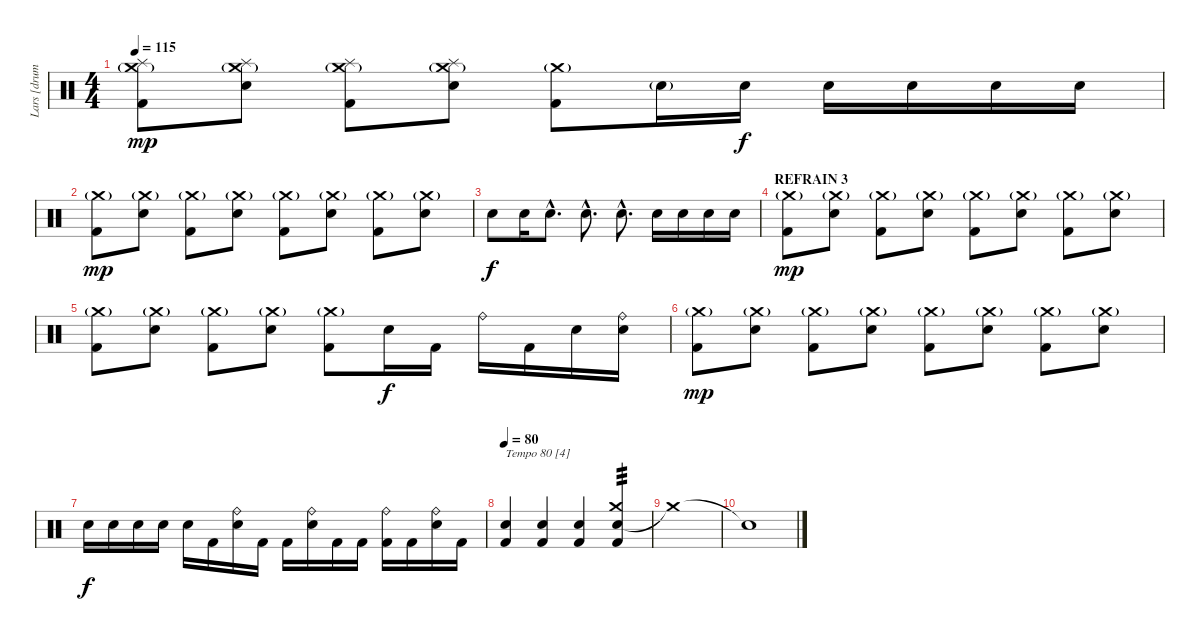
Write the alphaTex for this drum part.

\track ("Lars [drums]" "Lars [drum") {instrument percussion}
\staff {score}
\articulation defaults
\ts (4 4)
\tempo 115
\clef neutral
\ks c
("Kick (hit) 2" "Splash (hit)" "Crash medium (hit)"{g}).8{dy mp} ("Snare (hit) 2" "Splash (hit)" "Crash medium (hit)"{g}).8 ("Kick (hit) 2" "Splash (hit)" "Crash medium (hit)"{g}).8 ("Snare (hit) 2" "Splash (hit)" "Crash medium (hit)"{g}).8 ("Kick (hit) 2" "Crash medium (hit)"{g}).8 "Snare (hit) 2"{g}.16 "Snare (hit) 2".16{dy f} "Snare (hit) 2".16 "Snare (hit) 2".16 "Snare (hit) 2".16 "Snare (hit) 2".16 |
("Kick (hit) 2" "Crash medium (hit)"{g}).8{dy mp} ("Snare (hit) 2" "Crash medium (hit)"{g}).8 ("Kick (hit) 2" "Crash medium (hit)"{g}).8 ("Snare (hit) 2" "Crash medium (hit)"{g}).8 ("Kick (hit) 2" "Crash medium (hit)"{g}).8 ("Snare (hit) 2" "Crash medium (hit)"{g}).8 ("Kick (hit) 2" "Crash medium (hit)"{g}).8 ("Snare (hit) 2" "Crash medium (hit)"{g}).8 |
"Snare (hit) 2".8{dy f} "Snare (hit) 2".16 "Snare (hit) 2"{hac}.8{d} "Snare (hit) 2"{hac}.8{d} "Snare (hit) 2"{hac}.8{d} "Snare (hit) 2".16 "Snare (hit) 2".16 "Snare (hit) 2".16 "Snare (hit) 2".16 |
\section ("" "REFRAIN 3")
("Kick (hit) 2" "Crash medium (hit)"{g}).8{dy mp} ("Snare (hit) 2" "Crash medium (hit)"{g}).8 ("Kick (hit) 2" "Crash medium (hit)"{g}).8 ("Snare (hit) 2" "Crash medium (hit)"{g}).8 ("Kick (hit) 2" "Crash medium (hit)"{g}).8 ("Snare (hit) 2" "Crash medium (hit)"{g}).8 ("Kick (hit) 2" "Crash medium (hit)"{g}).8 ("Snare (hit) 2" "Crash medium (hit)"{g}).8 |
("Kick (hit) 2" "Crash medium (hit)"{g}).8 ("Snare (hit) 2" "Crash medium (hit)"{g}).8 ("Kick (hit) 2" "Crash medium (hit)"{g}).8 ("Snare (hit) 2" "Crash medium (hit)"{g}).8 ("Kick (hit) 2" "Crash medium (hit)"{g}).8 "Snare (hit) 2".16{dy f} "Kick (hit) 2".16 "Ride (bell)".16 "Kick (hit) 2".16 "Snare (hit) 2".16 ("Snare (hit) 2" "Ride (bell)").16 |
("Kick (hit) 2" "Crash medium (hit)"{g}).8{dy mp} ("Snare (hit) 2" "Crash medium (hit)"{g}).8 ("Kick (hit) 2" "Crash medium (hit)"{g}).8 ("Snare (hit) 2" "Crash medium (hit)"{g}).8 ("Kick (hit) 2" "Crash medium (hit)"{g}).8 ("Snare (hit) 2" "Crash medium (hit)"{g}).8 ("Kick (hit) 2" "Crash medium (hit)"{g}).8 ("Snare (hit) 2" "Crash medium (hit)"{g}).8 |
"Snare (hit) 2".16{dy f} "Snare (hit) 2".16 "Snare (hit) 2".16 "Snare (hit) 2".16 "Snare (hit) 2".16 "Kick (hit) 2".16 ("Snare (hit) 2" "Ride (bell)").16 "Kick (hit) 2".16 "Kick (hit) 2".16 ("Snare (hit) 2" "Ride (bell)").16 "Kick (hit) 2".16 "Kick (hit) 2".16 ("Kick (hit) 2" "Ride (bell)").16 "Kick (hit) 2".16 ("Snare (hit) 2" "Ride (bell)").16 "Kick (hit) 2".16 |
\tempo 80
("Snare (hit) 2" "Kick (hit) 2").4{txt "Tempo 80 [4]"} ("Snare (hit) 2" "Kick (hit) 2").4 ("Snare (hit) 2" "Kick (hit) 2").4 ("Snare (hit) 2" "Kick (hit) 2" "Crash medium (hit)").4{tp 3} |
"Crash medium (hit)"{t}.1 |
"Snare (hit)"{t}.1
